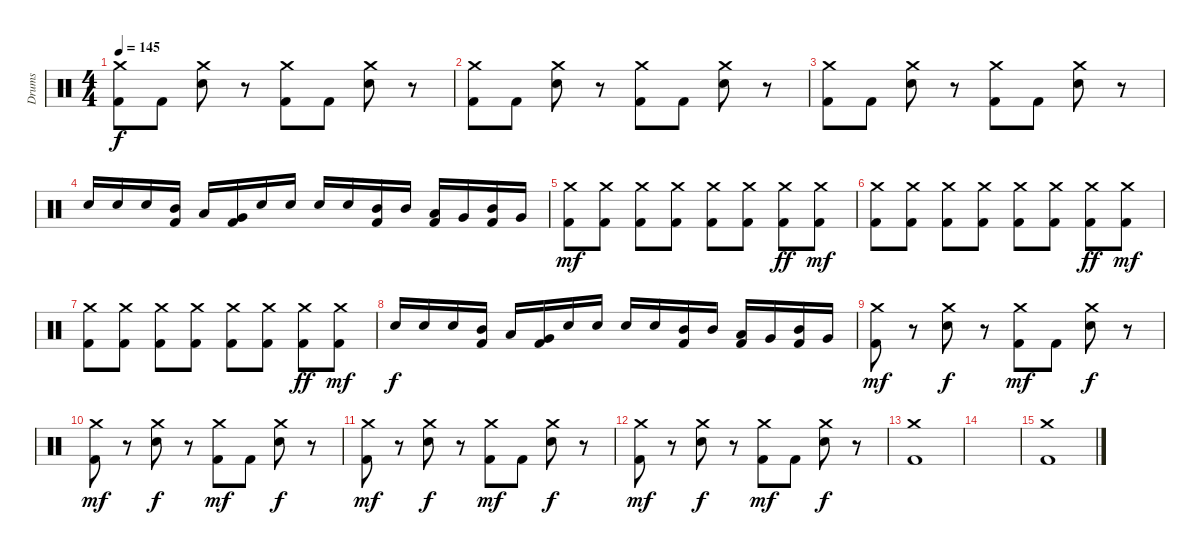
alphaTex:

\track ("Drums" "Drums") {instrument percussion}
\staff {score}
\articulation defaults
\ts (4 4)
\tempo 145
\clef neutral
\ks c
("Crash medium (hit)" "Kick (hit) 2").8{dy f} "Kick (hit) 2".8 ("Crash medium (hit)" "Snare (hit) 2").8 r.8 ("Crash medium (hit)" "Kick (hit) 2").8 "Kick (hit) 2".8 ("Crash medium (hit)" "Snare (hit) 2").8 r.8 |
("Crash medium (hit)" "Kick (hit) 2").8 "Kick (hit) 2".8 ("Crash medium (hit)" "Snare (hit) 2").8 r.8 ("Crash medium (hit)" "Kick (hit) 2").8 "Kick (hit) 2".8 ("Crash medium (hit)" "Snare (hit) 2").8 r.8 |
("Crash medium (hit)" "Kick (hit) 2").8 "Kick (hit) 2".8 ("Crash medium (hit)" "Snare (hit) 2").8 r.8 ("Crash medium (hit)" "Kick (hit) 2").8 "Kick (hit) 2".8 ("Crash medium (hit)" "Snare (hit) 2").8 r.8 |
"Snare (hit) 2".16 "Snare (hit) 2".16 "Snare (hit) 2".16 ("Mid Tom (hit)" "Kick (hit) 2").16 "Low Tom (hit)".16 ("Very Low Tom (hit)" "Kick (hit) 2").16 "Snare (hit) 2".16 "Snare (hit) 2".16 "Snare (hit) 2".16 "Snare (hit) 2".16 ("Mid Tom (hit)" "Kick (hit) 2").16 "Mid Tom (hit)".16 ("Low Tom (hit)" "Kick (hit) 2").16 "Very Low Tom (hit)".16 ("Mid Tom (hit)" "Kick (hit) 2").16 "Very Low Tom (hit)".16 |
("Crash medium (hit)" "Kick (hit) 2").8{dy mf} ("Crash medium (hit)" "Kick (hit) 2").8 ("Crash medium (hit)" "Kick (hit) 2").8 ("Crash medium (hit)" "Kick (hit) 2").8 ("Crash medium (hit)" "Kick (hit) 2").8 ("Crash medium (hit)" "Kick (hit) 2").8 ("Crash medium (hit)" "Kick (hit) 2").8{dy ff} ("Crash medium (hit)" "Kick (hit) 2").8{dy mf} |
("Crash medium (hit)" "Kick (hit) 2").8 ("Crash medium (hit)" "Kick (hit) 2").8 ("Crash medium (hit)" "Kick (hit) 2").8 ("Crash medium (hit)" "Kick (hit) 2").8 ("Crash medium (hit)" "Kick (hit) 2").8 ("Crash medium (hit)" "Kick (hit) 2").8 ("Crash medium (hit)" "Kick (hit) 2").8{dy ff} ("Crash medium (hit)" "Kick (hit) 2").8{dy mf} |
("Crash medium (hit)" "Kick (hit) 2").8 ("Crash medium (hit)" "Kick (hit) 2").8 ("Crash medium (hit)" "Kick (hit) 2").8 ("Crash medium (hit)" "Kick (hit) 2").8 ("Crash medium (hit)" "Kick (hit) 2").8 ("Crash medium (hit)" "Kick (hit) 2").8 ("Crash medium (hit)" "Kick (hit) 2").8{dy ff} ("Crash medium (hit)" "Kick (hit) 2").8{dy mf} |
"Snare (hit) 2".16{dy f} "Snare (hit) 2".16 "Snare (hit) 2".16 ("Mid Tom (hit)" "Kick (hit) 2").16 "Low Tom (hit)".16 ("Very Low Tom (hit)" "Kick (hit) 2").16 "Snare (hit) 2".16 "Snare (hit) 2".16 "Snare (hit) 2".16 "Snare (hit) 2".16 ("Mid Tom (hit)" "Kick (hit) 2").16 "Mid Tom (hit)".16 ("Low Tom (hit)" "Kick (hit) 2").16 "Very Low Tom (hit)".16 ("Mid Tom (hit)" "Kick (hit) 2").16 "Very Low Tom (hit)".16 |
("Crash medium (hit)" "Kick (hit) 2").8{dy mf} r.8 ("Crash medium (hit)" "Snare (hit) 2").8{dy f} r.8 ("Crash medium (hit)" "Kick (hit) 2").8{dy mf} "Kick (hit) 2".8 ("Crash medium (hit)" "Snare (hit) 2").8{dy f} r.8 |
("Crash medium (hit)" "Kick (hit) 2").8{dy mf} r.8 ("Crash medium (hit)" "Snare (hit) 2").8{dy f} r.8 ("Crash medium (hit)" "Kick (hit) 2").8{dy mf} "Kick (hit) 2".8 ("Crash medium (hit)" "Snare (hit) 2").8{dy f} r.8 |
("Crash medium (hit)" "Kick (hit) 2").8{dy mf} r.8 ("Crash medium (hit)" "Snare (hit) 2").8{dy f} r.8 ("Crash medium (hit)" "Kick (hit) 2").8{dy mf} "Kick (hit) 2".8 ("Crash medium (hit)" "Snare (hit) 2").8{dy f} r.8 |
("Crash medium (hit)" "Kick (hit) 2").8{dy mf} r.8 ("Crash medium (hit)" "Snare (hit) 2").8{dy f} r.8 ("Crash medium (hit)" "Kick (hit) 2").8{dy mf} "Kick (hit) 2".8 ("Crash medium (hit)" "Snare (hit) 2").8{dy f} r.8 |
("Crash medium (hit)" "Kick (hit) 2").1 |
|
("Crash medium (hit)" "Kick (hit) 2").1
